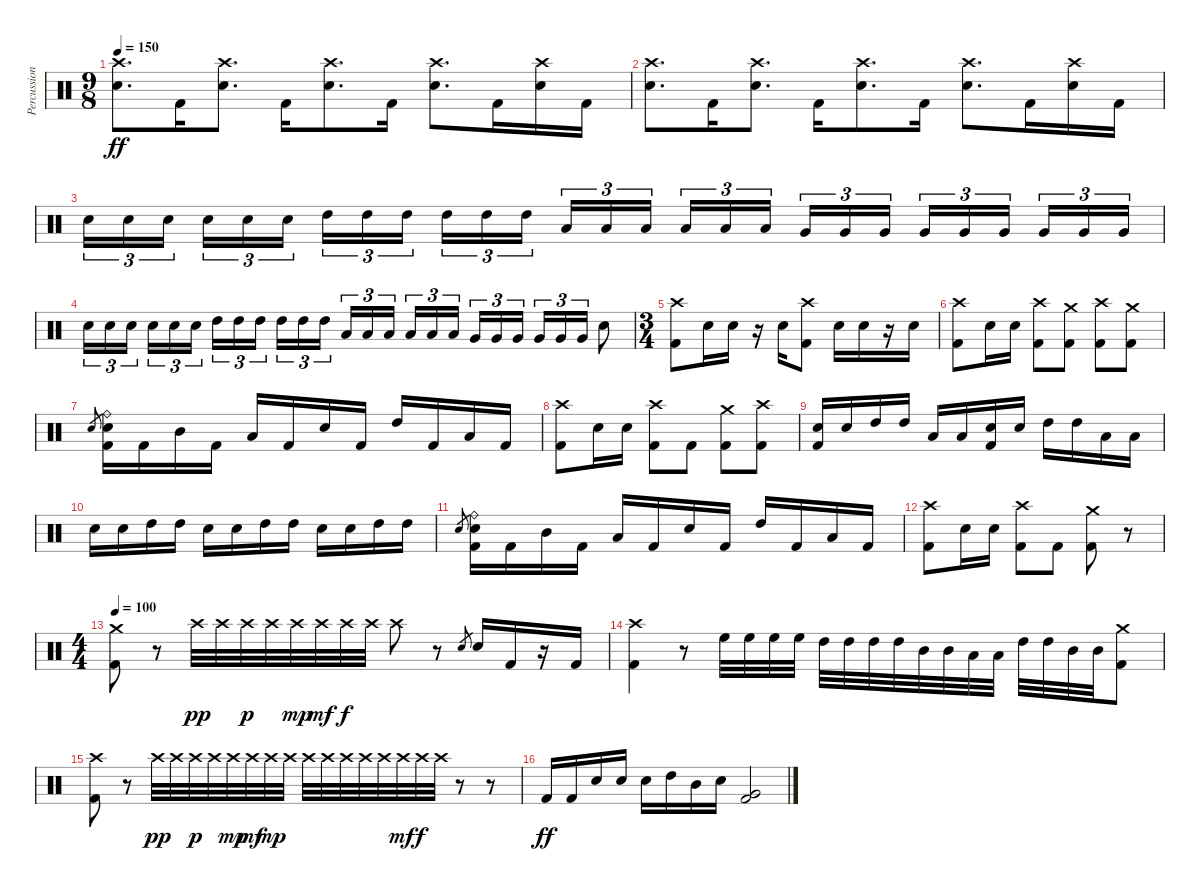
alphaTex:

\track ("Percussion" "Percussion") {instrument percussion}
\staff {score}
\articulation defaults
\ts (9 8)
\tempo 150
\clef neutral
\ks c
("Crash high (hit)" "Electric Snare (hit)").8{d dy ff} "Kick (hit) 2".16 ("Crash high (hit)" "Electric Snare (hit)").8{d} "Kick (hit) 2".16 ("Crash high (hit)" "Electric Snare (hit)").8{d} "Kick (hit) 2".16 ("Crash high (hit)" "Electric Snare (hit)").8{d} "Kick (hit) 2".16 ("Crash high (hit)" "Electric Snare (hit)").16 "Kick (hit) 2".16 |
("Crash high (hit)" "Electric Snare (hit)").8{d} "Kick (hit) 2".16 ("Crash high (hit)" "Electric Snare (hit)").8{d} "Kick (hit) 2".16 ("Crash high (hit)" "Electric Snare (hit)").8{d} "Kick (hit) 2".16 ("Crash high (hit)" "Electric Snare (hit)").8{d} "Kick (hit) 2".16 ("Crash high (hit)" "Electric Snare (hit)").16 "Kick (hit) 2".16 |
"Electric Snare (hit)".16{tu (3 2)} "Electric Snare (hit)".16{tu (3 2)} "Electric Snare (hit)".16{tu (3 2) beam splitsecondary} "Electric Snare (hit)".16{tu (3 2)} "Electric Snare (hit)".16{tu (3 2)} "Electric Snare (hit)".16{tu (3 2) beam splitsecondary} "High Tom (hit)".16{tu (3 2)} "High Tom (hit)".16{tu (3 2)} "High Tom (hit)".16{tu (3 2)} "High Tom (hit)".16{tu (3 2)} "High Tom (hit)".16{tu (3 2)} "High Tom (hit)".16{tu (3 2) beam splitsecondary} "Low Tom (hit)".16{tu (3 2)} "Low Tom (hit)".16{tu (3 2)} "Low Tom (hit)".16{tu (3 2) beam splitsecondary} "Low Tom (hit)".16{tu (3 2)} "Low Tom (hit)".16{tu (3 2)} "Low Tom (hit)".16{tu (3 2)} "Very Low Tom (hit)".16{tu (3 2)} "Very Low Tom (hit)".16{tu (3 2)} "Very Low Tom (hit)".16{tu (3 2) beam splitsecondary} "Very Low Tom (hit)".16{tu (3 2)} "Very Low Tom (hit)".16{tu (3 2)} "Very Low Tom (hit)".16{tu (3 2) beam splitsecondary} "Very Low Tom (hit)".16{tu (3 2)} "Very Low Tom (hit)".16{tu (3 2)} "Very Low Tom (hit)".16{tu (3 2)} |
"Electric Snare (hit)".16{tu (3 2)} "Electric Snare (hit)".16{tu (3 2)} "Electric Snare (hit)".16{tu (3 2) beam splitsecondary} "Electric Snare (hit)".16{tu (3 2)} "Electric Snare (hit)".16{tu (3 2)} "Electric Snare (hit)".16{tu (3 2) beam splitsecondary} "High Tom (hit)".16{tu (3 2)} "High Tom (hit)".16{tu (3 2)} "High Tom (hit)".16{tu (3 2)} "High Tom (hit)".16{tu (3 2)} "High Tom (hit)".16{tu (3 2)} "High Tom (hit)".16{tu (3 2) beam splitsecondary} "Low Tom (hit)".16{tu (3 2)} "Low Tom (hit)".16{tu (3 2)} "Low Tom (hit)".16{tu (3 2) beam splitsecondary} "Low Tom (hit)".16{tu (3 2)} "Low Tom (hit)".16{tu (3 2)} "Low Tom (hit)".16{tu (3 2)} "Very Low Tom (hit)".16{tu (3 2)} "Very Low Tom (hit)".16{tu (3 2)} "Very Low Tom (hit)".16{tu (3 2) beam splitsecondary} "Very Low Tom (hit)".16{tu (3 2)} "Very Low Tom (hit)".16{tu (3 2)} "Very Low Tom (hit)".16{tu (3 2)} "Electric Snare (hit)".8 |
\ts (3 4)
("Crash high (hit)" "Kick (hit) 2").8 "Electric Snare (hit)".16 "Electric Snare (hit)".16 r.16 "Electric Snare (hit)".16 ("Crash high (hit)" "Kick (hit) 2").8 "Electric Snare (hit)".16 "Electric Snare (hit)".16 r.16 "Electric Snare (hit)".16 |
("Crash high (hit)" "Kick (hit) 2").8 "Electric Snare (hit)".16 "Electric Snare (hit)".16 ("Crash high (hit)" "Kick (hit) 2").8 ("Crash medium (hit)" "Kick (hit) 2").8 ("Crash high (hit)" "Kick (hit) 2").8 ("Crash medium (hit)" "Kick (hit) 2").8 |
"Electric Snare (hit)".8{gr} ("Ride (bell)" "Electric Snare (hit)" "Kick (hit) 2").16 "Kick (hit) 2".16 "Mid Tom (hit)".16 "Kick (hit) 2".16 "Low Tom (hit)".16 "Kick (hit) 2".16 "Electric Snare (hit)".16 "Kick (hit) 2".16 "High Tom (hit)".16 "Kick (hit) 2".16 "Low Tom (hit)".16 "Kick (hit) 2".16 |
("Crash high (hit)" "Kick (hit) 2").8 "Electric Snare (hit)".16 "Electric Snare (hit)".16 ("Crash high (hit)" "Kick (hit) 2").8 "Kick (hit) 2".8 ("Crash medium (hit)" "Kick (hit) 2").8 ("Crash high (hit)" "Kick (hit) 2").8 |
("Electric Snare (hit)" "Kick (hit) 2").16 "Electric Snare (hit)".16 "High Tom (hit)".16 "High Tom (hit)".16 "Low Tom (hit)".16 "Low Tom (hit)".16 ("Electric Snare (hit)" "Kick (hit) 2").16 "Electric Snare (hit)".16 "High Tom (hit)".16 "High Tom (hit)".16 "Low Tom (hit)".16 "Low Tom (hit)".16 |
"Electric Snare (hit)".16 "Electric Snare (hit)".16 "High Tom (hit)".16 "High Tom (hit)".16 "Electric Snare (hit)".16 "Electric Snare (hit)".16 "High Tom (hit)".16 "High Tom (hit)".16 "Electric Snare (hit)".16 "Electric Snare (hit)".16 "High Tom (hit)".16 "High Tom (hit)".16 |
"Electric Snare (hit)".8{gr} ("Ride (bell)" "Electric Snare (hit)" "Kick (hit) 2").16 "Kick (hit) 2".16 "Mid Tom (hit)".16 "Kick (hit) 2".16 "Low Tom (hit)".16 "Kick (hit) 2".16 "Electric Snare (hit)".16 "Kick (hit) 2".16 "High Tom (hit)".16 "Kick (hit) 2".16 "Low Tom (hit)".16 "Kick (hit) 2".16 |
("Crash high (hit)" "Kick (hit) 2").8 "Electric Snare (hit)".16 "Electric Snare (hit)".16 ("Crash high (hit)" "Kick (hit) 2").8 "Kick (hit) 2".8 ("Crash medium (hit)" "Kick (hit) 2").8 r.8 |
\ts (4 4)
\tempo 100
("Crash medium (hit)" "Kick (hit) 2").8 r.8 "Crash high (hit)".32{dy pp} "Crash high (hit)".32 "Crash high (hit)".32{dy p} "Crash high (hit)".32 "Crash high (hit)".32{dy mp} "Crash high (hit)".32{dy mf} "Crash high (hit)".32{dy f} "Crash high (hit)".32 "Crash high (hit)".8 r.8 "Electric Snare (hit)".8{gr} "Electric Snare (hit)".16 "Kick (hit) 2".16 r.16 "Kick (hit) 2".16 |
("Crash high (hit)" "Kick (hit) 2").4 r.8 "High Floor Tom (hit)".32 "High Floor Tom (hit)".32 "High Floor Tom (hit)".32 "High Floor Tom (hit)".32 "High Tom (hit)".32 "High Tom (hit)".32 "High Tom (hit)".32 "High Tom (hit)".32 "Mid Tom (hit)".32 "Mid Tom (hit)".32 "Low Tom (hit)".32 "Low Tom (hit)".32 "High Tom (hit)".32 "High Tom (hit)".32 "Mid Tom (hit)".32 "Mid Tom (hit)".32 ("Crash medium (hit)" "Kick (hit) 2").8 |
("Crash high (hit)" "Kick (hit) 2").8 r.8 "Crash high (hit)".32{dy pp} "Crash high (hit)".32 "Crash high (hit)".32{dy p} "Crash high (hit)".32 "Crash high (hit)".32{dy mp} "Crash high (hit)".32{dy mf} "Crash high (hit)".32{dy mp} "Crash high (hit)".32 "Crash high (hit)".32 "Crash high (hit)".32 "Crash high (hit)".32 "Crash high (hit)".32 "Crash high (hit)".32 "Crash high (hit)".32{dy mf} "Crash high (hit)".32{dy f} "Crash high (hit)".32 r.8 r.8 |
"Kick (hit) 2".16{dy ff} "Kick (hit) 2".16 "Electric Snare (hit)".16 "Electric Snare (hit)".16 "Electric Snare (hit)".16 "High Tom (hit)".16 "Mid Tom (hit)".16 "Electric Snare (hit)".16 ("Very Low Tom (hit)" "Kick (hit) 2").2
